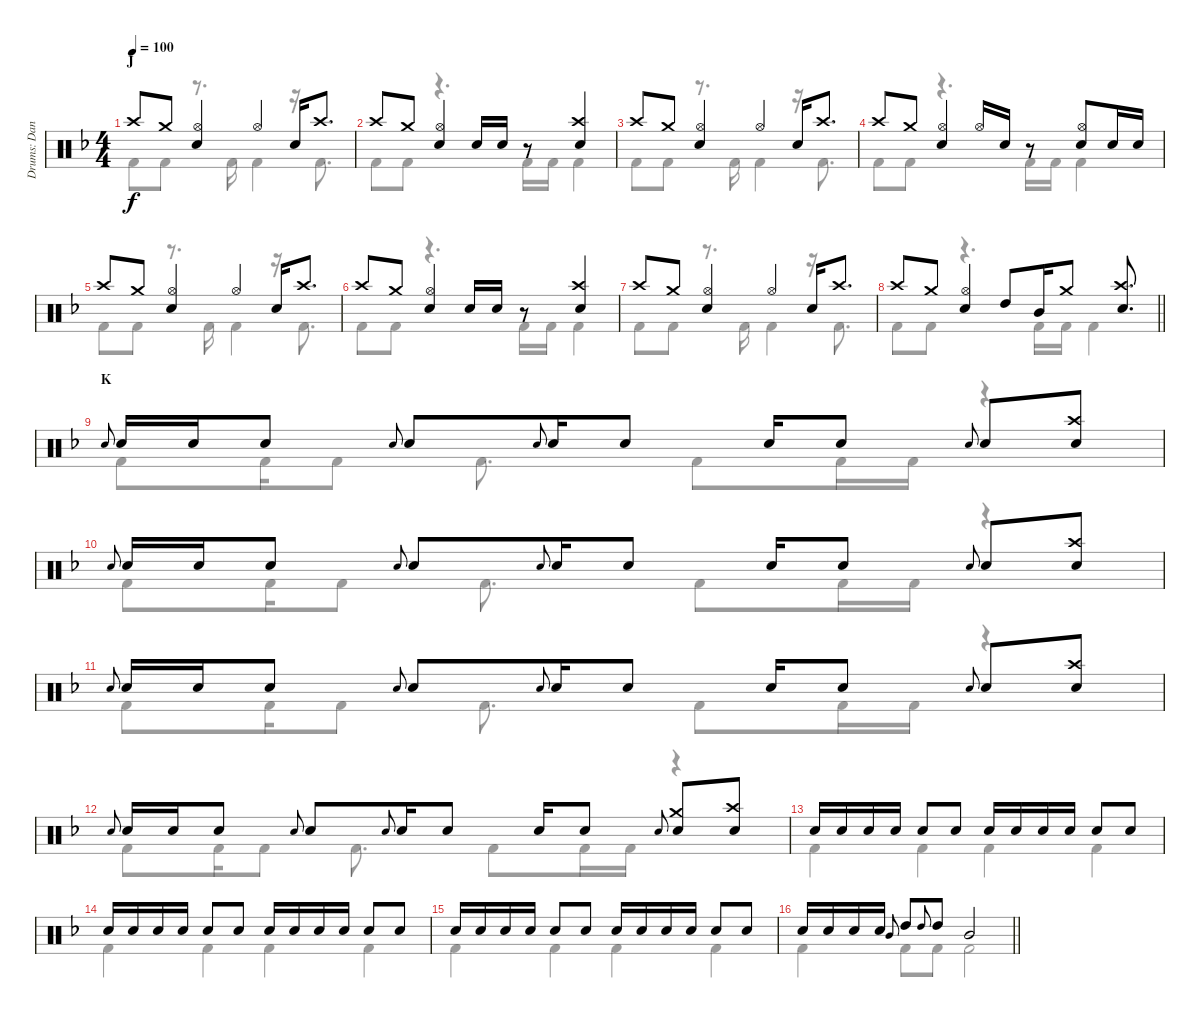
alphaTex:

\track ("Drums: Dana" "Drums: Dan") {instrument percussion}
\staff {score}
\articulation defaults
\voice
\ts (4 4)
\section ("" "J")
\tempo 100
\clef neutral
\ks f "Crash high (hit)".8{dy f} "Crash medium (hit)".8
("Hi-Hat (open)" "Snare (hit) 2").4 "Hi-Hat (open)".4 "Snare (hit) 2".16 "Crash high (hit)".8{d} |
"Crash high (hit)".8 "Crash medium (hit)".8 ("Hi-Hat (open)" "Snare (hit) 2").4 "Snare (hit) 2".16 "Snare (hit) 2".16 r.8 ("Crash high (hit)" "Snare (hit) 2").4 |
"Crash high (hit)".8 "Crash medium (hit)".8 ("Hi-Hat (open)" "Snare (hit) 2").4 "Hi-Hat (open)".4 "Snare (hit) 2".16 "Crash high (hit)".8{d} |
"Crash high (hit)".8 "Crash medium (hit)".8 ("Hi-Hat (open)" "Snare (hit) 2").4 "Hi-Hat (open)".16 "Snare (hit) 2".16 r.8 ("Hi-Hat (open)" "Snare (hit) 2").8 "Snare (hit) 2".16 "Snare (hit) 2".16 |
"Crash high (hit)".8 "Crash medium (hit)".8 ("Hi-Hat (open)" "Snare (hit) 2").4 "Hi-Hat (open)".4 "Snare (hit) 2".16 "Crash high (hit)".8{d} |
"Crash high (hit)".8 "Crash medium (hit)".8 ("Hi-Hat (open)" "Snare (hit) 2").4 "Snare (hit) 2".16 "Snare (hit) 2".16 r.8 ("Crash high (hit)" "Snare (hit) 2").4 |
"Crash high (hit)".8 "Crash medium (hit)".8 ("Hi-Hat (open)" "Snare (hit) 2").4 "Hi-Hat (open)".4 "Snare (hit) 2".16 "Crash high (hit)".8{d} |
\barLineRight lightlight "Crash high (hit)".8 "Crash medium (hit)".8
("Hi-Hat (open)" "Snare (hit) 2").4 "High Tom (hit)".8 "Mid Tom (hit)".16 "Crash medium (hit)".8 ("Crash high (hit)" "Snare (hit) 2").8{d} |
\section ("" "K")
"Electric Snare (hit)".8{gr onbeat} "Snare (hit) 2".16 "Snare (hit) 2".16 "Snare (hit) 2".8 "Electric Snare (hit)".8{gr onbeat} "Snare (hit) 2".8 "Electric Snare (hit)".8{gr onbeat} "Snare (hit) 2".16 "Snare (hit) 2".8 "Snare (hit) 2".16 "Snare (hit) 2".8 "Electric Snare (hit)".8{gr onbeat} "Snare (hit) 2".8 ("Crash high (hit)" "Snare (hit) 2").8 |
"Electric Snare (hit)".8{gr onbeat} "Snare (hit) 2".16 "Snare (hit) 2".16 "Snare (hit) 2".8 "Electric Snare (hit)".8{gr onbeat} "Snare (hit) 2".8 "Electric Snare (hit)".8{gr onbeat} "Snare (hit) 2".16 "Snare (hit) 2".8 "Snare (hit) 2".16 "Snare (hit) 2".8 "Electric Snare (hit)".8{gr onbeat} "Snare (hit) 2".8 ("Crash high (hit)" "Snare (hit) 2").8 |
"Electric Snare (hit)".8{gr onbeat} "Snare (hit) 2".16 "Snare (hit) 2".16 "Snare (hit) 2".8 "Electric Snare (hit)".8{gr onbeat} "Snare (hit) 2".8 "Electric Snare (hit)".8{gr onbeat} "Snare (hit) 2".16 "Snare (hit) 2".8 "Snare (hit) 2".16 "Snare (hit) 2".8 "Electric Snare (hit)".8{gr onbeat} "Snare (hit) 2".8 ("Crash high (hit)" "Snare (hit) 2").8 |
"Electric Snare (hit)".8{gr onbeat} "Snare (hit) 2".16 "Snare (hit) 2".16 "Snare (hit) 2".8 "Electric Snare (hit)".8{gr onbeat} "Snare (hit) 2".8 "Electric Snare (hit)".8{gr onbeat} "Snare (hit) 2".16 "Snare (hit) 2".8 "Snare (hit) 2".16 "Snare (hit) 2".8 "Electric Snare (hit)".8{gr onbeat} ("Crash medium (hit)" "Snare (hit) 2").8 ("Crash high (hit)" "Snare (hit) 2").8 |
"Snare (hit) 2".16 "Snare (hit) 2".16 "Snare (hit) 2".16 "Snare (hit) 2".16 "Snare (hit) 2".8 "Snare (hit) 2".8 "Snare (hit) 2".16 "Snare (hit) 2".16 "Snare (hit) 2".16 "Snare (hit) 2".16 "Snare (hit) 2".8 "Snare (hit) 2".8 |
"Snare (hit) 2".16 "Snare (hit) 2".16 "Snare (hit) 2".16 "Snare (hit) 2".16 "Snare (hit) 2".8 "Snare (hit) 2".8 "Snare (hit) 2".16 "Snare (hit) 2".16 "Snare (hit) 2".16 "Snare (hit) 2".16 "Snare (hit) 2".8 "Snare (hit) 2".8 |
"Snare (hit) 2".16 "Snare (hit) 2".16 "Snare (hit) 2".16 "Snare (hit) 2".16 "Snare (hit) 2".8 "Snare (hit) 2".8 "Snare (hit) 2".16 "Snare (hit) 2".16 "Snare (hit) 2".16 "Snare (hit) 2".16 "Snare (hit) 2".8 "Snare (hit) 2".8 |
\barLineRight lightlight "Snare (hit) 2".16 "Snare (hit) 2".16 "Snare (hit) 2".16 "Snare (hit) 2".16 "Mid Tom (hit)".8{gr onbeat} "High Tom (hit)".8 "High Tom (hit)".8{gr onbeat} "High Tom (hit)".8 "Mid Tom (hit)".2
\voice
\clef neutral
\ottava regular
\simile none
\ks f "Kick (hit) 2".8{dy f} "Kick (hit) 2".8
r.8{d} "Kick (hit) 2".16 "Kick (hit) 2".4 r.16 "Kick (hit) 2".8{d} |
"Kick (hit) 2".8 "Kick (hit) 2".8 r.4{d} "Kick (hit) 2".16 "Kick (hit) 2".16 "Kick (hit) 2".4 |
"Kick (hit) 2".8 "Kick (hit) 2".8 r.8{d} "Kick (hit) 2".16 "Kick (hit) 2".4 r.16 "Kick (hit) 2".8{d} |
"Kick (hit) 2".8 "Kick (hit) 2".8 r.4{d} "Kick (hit) 2".16 "Kick (hit) 2".16 "Kick (hit) 2".4 |
"Kick (hit) 2".8 "Kick (hit) 2".8 r.8{d} "Kick (hit) 2".16 "Kick (hit) 2".4 r.16 "Kick (hit) 2".8{d} |
"Kick (hit) 2".8 "Kick (hit) 2".8 r.4{d} "Kick (hit) 2".16 "Kick (hit) 2".16 "Kick (hit) 2".4 |
"Kick (hit) 2".8 "Kick (hit) 2".8 r.8{d} "Kick (hit) 2".16 "Kick (hit) 2".4 r.16 "Kick (hit) 2".8{d} |
\barLineRight lightlight "Kick (hit) 2".8 "Kick (hit) 2".8
r.4{d} "Kick (hit) 2".16 "Kick (hit) 2".16 "Kick (hit) 2".4 |
"Kick (hit) 2".8 "Kick (hit) 2".16 "Kick (hit) 2".8 "Kick (hit) 2".8{d} "Kick (hit) 2".8 "Kick (hit) 2".16 "Kick (hit) 2".16 r.4 |
"Kick (hit) 2".8 "Kick (hit) 2".16 "Kick (hit) 2".8 "Kick (hit) 2".8{d} "Kick (hit) 2".8 "Kick (hit) 2".16 "Kick (hit) 2".16 r.4 |
"Kick (hit) 2".8 "Kick (hit) 2".16 "Kick (hit) 2".8 "Kick (hit) 2".8{d} "Kick (hit) 2".8 "Kick (hit) 2".16 "Kick (hit) 2".16 r.4 |
"Kick (hit) 2".8 "Kick (hit) 2".16 "Kick (hit) 2".8 "Kick (hit) 2".8{d} "Kick (hit) 2".8 "Kick (hit) 2".16 "Kick (hit) 2".16 r.4 |
"Kick (hit) 2".4 "Kick (hit) 2".4 "Kick (hit) 2".4 "Kick (hit) 2".4 |
"Kick (hit) 2".4 "Kick (hit) 2".4 "Kick (hit) 2".4 "Kick (hit) 2".4 |
"Kick (hit) 2".4 "Kick (hit) 2".4 "Kick (hit) 2".4 "Kick (hit) 2".4 |
\barLineRight lightlight "Kick (hit) 2".4 "Kick (hit) 2".8 "Kick (hit) 2".8 "Kick (hit) 2".2
